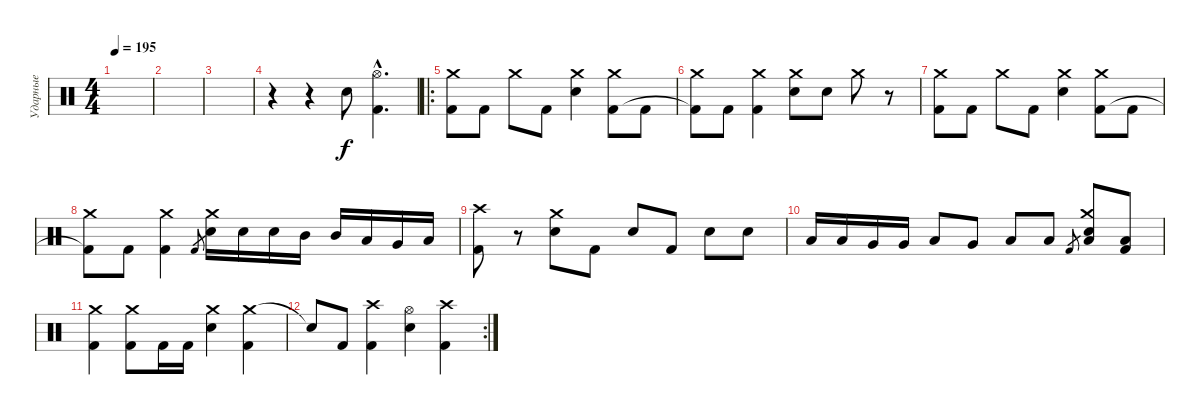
\track ("Ударные" "Ударные") {instrument percussion}
\staff {score}
\articulation defaults
\ts (4 4)
\tempo 195
\clef neutral
\ks c
|
|
|
r.4 r.4 "Electric Snare (hit)".8 ("Kick (hit) 2"{hac} "Hi-Hat (open)"{hac}).4{d} |
\ro
("Crash medium (hit)" "Kick (hit) 2").8 "Kick (hit) 2".8 "Crash medium (hit)".8 "Kick (hit) 2".8 ("Crash medium (hit)" "Electric Snare (hit)").4 ("Crash medium (hit)" "Kick (hit) 2").8 "Kick (hit) 2".8 |
("Crash medium (hit)" "Kick (hit) 2"{t}).8 "Kick (hit) 2".8 ("Crash medium (hit)" "Kick (hit) 2").4 ("Crash medium (hit)" "Electric Snare (hit)").8 "Electric Snare (hit)".8 "Crash medium (hit)".8 r.8 |
("Crash medium (hit)" "Kick (hit) 2").8 "Kick (hit) 2".8 "Crash medium (hit)".8 "Kick (hit) 2".8 ("Crash medium (hit)" "Electric Snare (hit)").4 ("Crash medium (hit)" "Kick (hit) 2").8 "Kick (hit) 2".8 |
("Crash medium (hit)" "Kick (hit) 2"{t}).8 "Kick (hit) 2".8 ("Crash medium (hit)" "Kick (hit) 2").4 "Kick (hit) 2".8{gr} ("Crash medium (hit)" "Electric Snare (hit)").16 "Electric Snare (hit)".16 "Electric Snare (hit)".16 "Mid Tom (hit)".16 "Mid Tom (hit)".16 "Low Tom (hit)".16 "Very Low Tom (hit)".16 "Low Floor Tom (hit)".16 |
("Crash high (hit)" "Kick (hit) 2").8 r.8 ("Crash medium (hit)" "Electric Snare (hit)").8 "Kick (hit) 2".8 "Electric Snare (hit)".8 "Kick (hit) 2".8 "Electric Snare (hit)".8 "Electric Snare (hit)".8 |
"Low Tom (hit)".16 "Low Tom (hit)".16 "Very Low Tom (hit)".16 "Very Low Tom (hit)".16 "Low Tom (hit)".8 "Very Low Tom (hit)".8 "Low Floor Tom (hit)".8 "Low Tom (hit)".8 "Kick (hit) 2".8{gr} ("Crash medium (hit)" "Low Floor Tom (hit)" "Electric Snare (hit)").8 ("Low Floor Tom (hit)" "Kick (hit) 2").8 |
("Crash medium (hit)" "Kick (hit) 2").4 ("Crash medium (hit)" "Kick (hit) 2").8 "Kick (hit) 2".16 "Kick (hit) 2".16 ("Crash medium (hit)" "Electric Snare (hit)").4 ("Crash medium (hit)" "Kick (hit) 2").4 |
\rc 2 "Snare (hit)"{t}.8 "Kick (hit) 2".8
("Crash high (hit)" "Kick (hit) 2").4 ("Hi-Hat (open)" "Electric Snare (hit)").4 ("Crash high (hit)" "Kick (hit) 2").4
